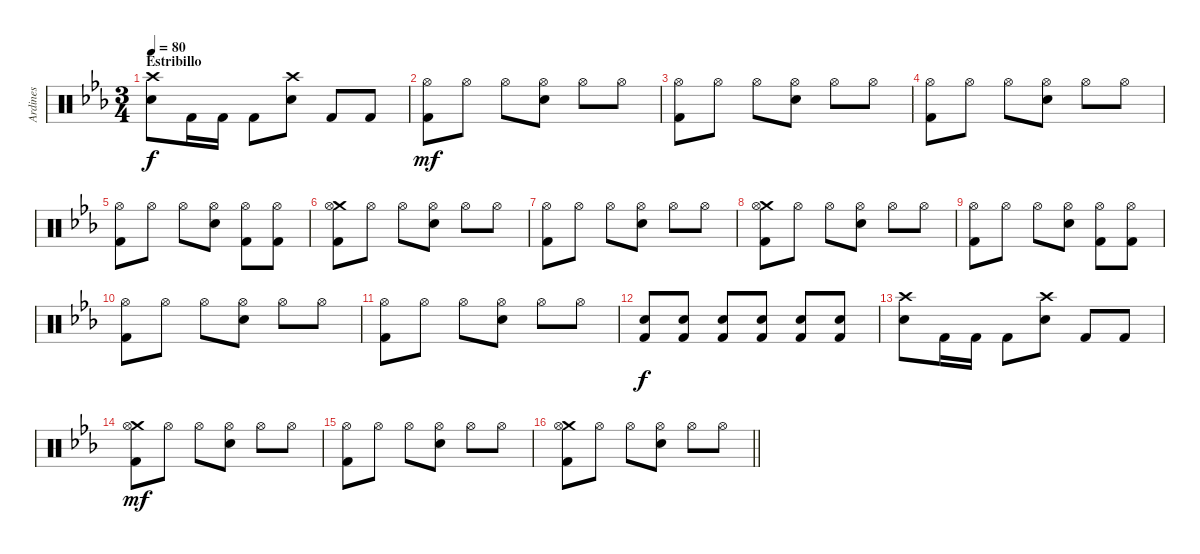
\track ("Ardines" "Ardines") {instrument percussion}
\staff {score}
\articulation defaults
\ts (3 4)
\section ("" "Estribillo")
\tempo 80
\clef neutral
\ks eb
("Snare (hit) 2" "Crash high (hit)").8{dy f} "Kick (hit) 2".16 "Kick (hit) 2".16 "Kick (hit) 2".8 ("Snare (hit) 2" "Crash high (hit)").8 "Kick (hit) 2".8 "Kick (hit) 2".8 |
("Kick (hit) 2" "Hi-Hat (open)").8{dy mf} "Hi-Hat (open)".8 "Hi-Hat (open)".8 ("Snare (hit) 2" "Hi-Hat (open)").8 "Hi-Hat (open)".8 "Hi-Hat (open)".8 |
("Kick (hit) 2" "Hi-Hat (open)").8 "Hi-Hat (open)".8 "Hi-Hat (open)".8 ("Snare (hit) 2" "Hi-Hat (open)").8 "Hi-Hat (open)".8 "Hi-Hat (open)".8 |
("Kick (hit) 2" "Hi-Hat (open)").8 "Hi-Hat (open)".8 "Hi-Hat (open)".8 ("Snare (hit) 2" "Hi-Hat (open)").8 "Hi-Hat (open)".8 "Hi-Hat (open)".8 |
("Kick (hit) 2" "Hi-Hat (open)").8 "Hi-Hat (open)".8 "Hi-Hat (open)".8 ("Snare (hit) 2" "Hi-Hat (open)").8 ("Kick (hit) 2" "Hi-Hat (open)").8 ("Kick (hit) 2" "Hi-Hat (open)").8 |
("Kick (hit) 2" "Crash medium (hit)" "Hi-Hat (open)").8 "Hi-Hat (open)".8 "Hi-Hat (open)".8 ("Snare (hit) 2" "Hi-Hat (open)").8 "Hi-Hat (open)".8 "Hi-Hat (open)".8 |
("Kick (hit) 2" "Hi-Hat (open)").8 "Hi-Hat (open)".8 "Hi-Hat (open)".8 ("Snare (hit) 2" "Hi-Hat (open)").8 "Hi-Hat (open)".8 "Hi-Hat (open)".8 |
("Kick (hit) 2" "Crash medium (hit)" "Hi-Hat (open)").8 "Hi-Hat (open)".8 "Hi-Hat (open)".8 ("Snare (hit) 2" "Hi-Hat (open)").8 "Hi-Hat (open)".8 "Hi-Hat (open)".8 |
("Kick (hit) 2" "Hi-Hat (open)").8 "Hi-Hat (open)".8 "Hi-Hat (open)".8 ("Snare (hit) 2" "Hi-Hat (open)").8 ("Kick (hit) 2" "Hi-Hat (open)").8 ("Kick (hit) 2" "Hi-Hat (open)").8 |
("Kick (hit) 2" "Hi-Hat (open)").8 "Hi-Hat (open)".8 "Hi-Hat (open)".8 ("Snare (hit) 2" "Hi-Hat (open)").8 "Hi-Hat (open)".8 "Hi-Hat (open)".8 |
("Kick (hit) 2" "Hi-Hat (open)").8 "Hi-Hat (open)".8 "Hi-Hat (open)".8 ("Snare (hit) 2" "Hi-Hat (open)").8 "Hi-Hat (open)".8 "Hi-Hat (open)".8 |
("Snare (hit) 2" "Kick (hit) 2").8{dy f} ("Snare (hit) 2" "Kick (hit) 2").8 ("Snare (hit) 2" "Kick (hit) 2").8 ("Snare (hit) 2" "Kick (hit) 2").8 ("Snare (hit) 2" "Kick (hit) 2").8 ("Snare (hit) 2" "Kick (hit) 2").8 |
("Snare (hit) 2" "Crash high (hit)").8 "Kick (hit) 2".16 "Kick (hit) 2".16 "Kick (hit) 2".8 ("Snare (hit) 2" "Crash high (hit)").8 "Kick (hit) 2".8 "Kick (hit) 2".8 |
("Kick (hit) 2" "Crash medium (hit)" "Hi-Hat (open)").8{dy mf} "Hi-Hat (open)".8 "Hi-Hat (open)".8 ("Snare (hit) 2" "Hi-Hat (open)").8 "Hi-Hat (open)".8 "Hi-Hat (open)".8 |
("Kick (hit) 2" "Hi-Hat (open)").8 "Hi-Hat (open)".8 "Hi-Hat (open)".8 ("Snare (hit) 2" "Hi-Hat (open)").8 "Hi-Hat (open)".8 "Hi-Hat (open)".8 |
\barLineRight lightlight
("Kick (hit) 2" "Crash medium (hit)" "Hi-Hat (open)").8 "Hi-Hat (open)".8 "Hi-Hat (open)".8 ("Snare (hit) 2" "Hi-Hat (open)").8 "Hi-Hat (open)".8 "Hi-Hat (open)".8
